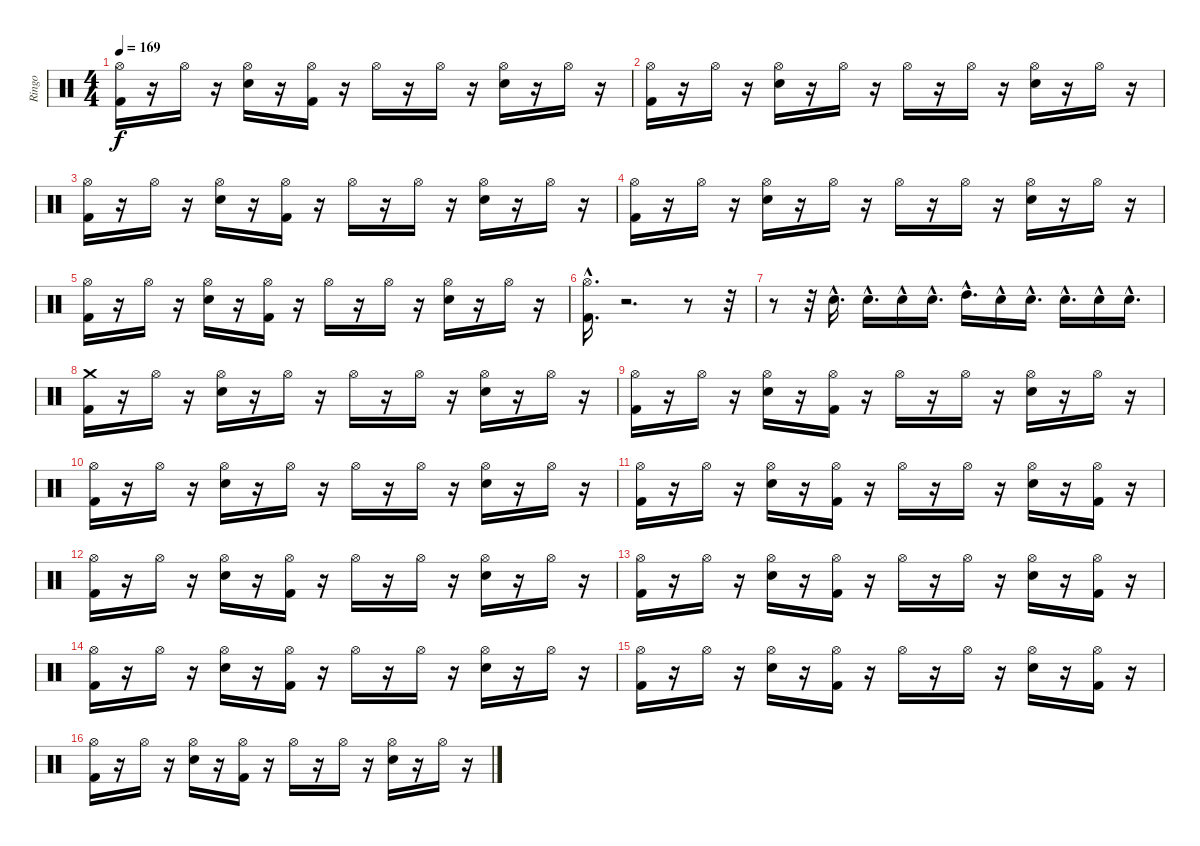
\track ("Ringo" "Ringo") {instrument percussion}
\staff {score}
\articulation defaults
\ts (4 4)
\tempo 169
\clef neutral
\ks c
("Hi-Hat (open)" "Kick (hit) 2").16{dy f} r.16 "Hi-Hat (open)".16 r.16 ("Hi-Hat (open)" "Snare (hit) 2").16 r.16 ("Hi-Hat (open)" "Kick (hit) 2").16 r.16 "Hi-Hat (open)".16 r.16 "Hi-Hat (open)".16 r.16 ("Hi-Hat (open)" "Snare (hit) 2").16 r.16 "Hi-Hat (open)".16 r.16 |
("Hi-Hat (open)" "Kick (hit) 2").16 r.16 "Hi-Hat (open)".16 r.16 ("Hi-Hat (open)" "Snare (hit) 2").16 r.16 "Hi-Hat (open)".16 r.16 "Hi-Hat (open)".16 r.16 "Hi-Hat (open)".16 r.16 ("Hi-Hat (open)" "Snare (hit) 2").16 r.16 "Hi-Hat (open)".16 r.16 |
("Hi-Hat (open)" "Kick (hit) 2").16 r.16 "Hi-Hat (open)".16 r.16 ("Hi-Hat (open)" "Snare (hit) 2").16 r.16 ("Hi-Hat (open)" "Kick (hit) 2").16 r.16 "Hi-Hat (open)".16 r.16 "Hi-Hat (open)".16 r.16 ("Hi-Hat (open)" "Snare (hit) 2").16 r.16 "Hi-Hat (open)".16 r.16 |
("Hi-Hat (open)" "Kick (hit) 2").16 r.16 "Hi-Hat (open)".16 r.16 ("Hi-Hat (open)" "Snare (hit) 2").16 r.16 "Hi-Hat (open)".16 r.16 "Hi-Hat (open)".16 r.16 "Hi-Hat (open)".16 r.16 ("Hi-Hat (open)" "Snare (hit) 2").16 r.16 "Hi-Hat (open)".16 r.16 |
("Hi-Hat (open)" "Kick (hit) 2").16 r.16 "Hi-Hat (open)".16 r.16 ("Hi-Hat (open)" "Snare (hit) 2").16 r.16 ("Hi-Hat (open)" "Kick (hit) 2").16 r.16 "Hi-Hat (open)".16 r.16 "Hi-Hat (open)".16 r.16 ("Hi-Hat (open)" "Snare (hit) 2").16 r.16 "Hi-Hat (open)".16 r.16 |
("Kick (hit) 2"{hac} "Hi-Hat (open)"{hac}).16{d} r.2{d} r.8 r.32 |
r.8 r.32 "Snare (hit) 2"{hac}.16{d} "Snare (hit) 2"{hac}.16{d} "Snare (hit) 2"{hac}.16 "Snare (hit) 2"{hac}.16{d} "High Tom (hit)"{hac}.16{d} "Snare (hit) 2"{hac}.16 "Snare (hit) 2"{hac}.16{d} "Snare (hit) 2"{hac}.16{d} "Snare (hit) 2"{hac}.16 "Snare (hit) 2"{hac}.16{d} |
("Crash medium (hit)" "Kick (hit) 2").16 r.16 "Hi-Hat (open)".16 r.16 ("Hi-Hat (open)" "Snare (hit) 2").16 r.16 "Hi-Hat (open)".16 r.16 "Hi-Hat (open)".16 r.16 "Hi-Hat (open)".16 r.16 ("Hi-Hat (open)" "Snare (hit) 2").16 r.16 "Hi-Hat (open)".16 r.16 |
("Hi-Hat (open)" "Kick (hit) 2").16 r.16 "Hi-Hat (open)".16 r.16 ("Hi-Hat (open)" "Snare (hit) 2").16 r.16 ("Hi-Hat (open)" "Kick (hit) 2").16 r.16 "Hi-Hat (open)".16 r.16 "Hi-Hat (open)".16 r.16 ("Hi-Hat (open)" "Snare (hit) 2").16 r.16 "Hi-Hat (open)".16 r.16 |
("Hi-Hat (open)" "Kick (hit) 2").16 r.16 "Hi-Hat (open)".16 r.16 ("Hi-Hat (open)" "Snare (hit) 2").16 r.16 "Hi-Hat (open)".16 r.16 "Hi-Hat (open)".16 r.16 "Hi-Hat (open)".16 r.16 ("Hi-Hat (open)" "Snare (hit) 2").16 r.16 "Hi-Hat (open)".16 r.16 |
("Hi-Hat (open)" "Kick (hit) 2").16 r.16 "Hi-Hat (open)".16 r.16 ("Hi-Hat (open)" "Snare (hit) 2").16 r.16 ("Hi-Hat (open)" "Kick (hit) 2").16 r.16 "Hi-Hat (open)".16 r.16 "Hi-Hat (open)".16 r.16 ("Hi-Hat (open)" "Snare (hit) 2").16 r.16 ("Hi-Hat (open)" "Kick (hit) 2").16 r.16 |
("Hi-Hat (open)" "Kick (hit) 2").16 r.16 "Hi-Hat (open)".16 r.16 ("Hi-Hat (open)" "Snare (hit) 2").16 r.16 ("Hi-Hat (open)" "Kick (hit) 2").16 r.16 "Hi-Hat (open)".16 r.16 "Hi-Hat (open)".16 r.16 ("Hi-Hat (open)" "Snare (hit) 2").16 r.16 "Hi-Hat (open)".16 r.16 |
("Hi-Hat (open)" "Kick (hit) 2").16 r.16 "Hi-Hat (open)".16 r.16 ("Hi-Hat (open)" "Snare (hit) 2").16 r.16 ("Hi-Hat (open)" "Kick (hit) 2").16 r.16 "Hi-Hat (open)".16 r.16 "Hi-Hat (open)".16 r.16 ("Hi-Hat (open)" "Snare (hit) 2").16 r.16 ("Hi-Hat (open)" "Kick (hit) 2").16 r.16 |
("Kick (hit) 2" "Hi-Hat (open)").16 r.16 "Hi-Hat (open)".16 r.16 ("Snare (hit) 2" "Hi-Hat (open)").16 r.16 ("Kick (hit) 2" "Hi-Hat (open)").16 r.16 "Hi-Hat (open)".16 r.16 "Hi-Hat (open)".16 r.16 ("Snare (hit) 2" "Hi-Hat (open)").16 r.16 "Hi-Hat (open)".16 r.16 |
("Kick (hit) 2" "Hi-Hat (open)").16 r.16 "Hi-Hat (open)".16 r.16 ("Snare (hit) 2" "Hi-Hat (open)").16 r.16 ("Kick (hit) 2" "Hi-Hat (open)").16 r.16 "Hi-Hat (open)".16 r.16 "Hi-Hat (open)".16 r.16 ("Snare (hit) 2" "Hi-Hat (open)").16 r.16 ("Kick (hit) 2" "Hi-Hat (open)").16 r.16 |
("Kick (hit) 2" "Hi-Hat (open)").16 r.16 "Hi-Hat (open)".16 r.16 ("Snare (hit) 2" "Hi-Hat (open)").16 r.16 ("Kick (hit) 2" "Hi-Hat (open)").16 r.16 "Hi-Hat (open)".16 r.16 "Hi-Hat (open)".16 r.16 ("Snare (hit) 2" "Hi-Hat (open)").16 r.16 "Hi-Hat (open)".16 r.16
